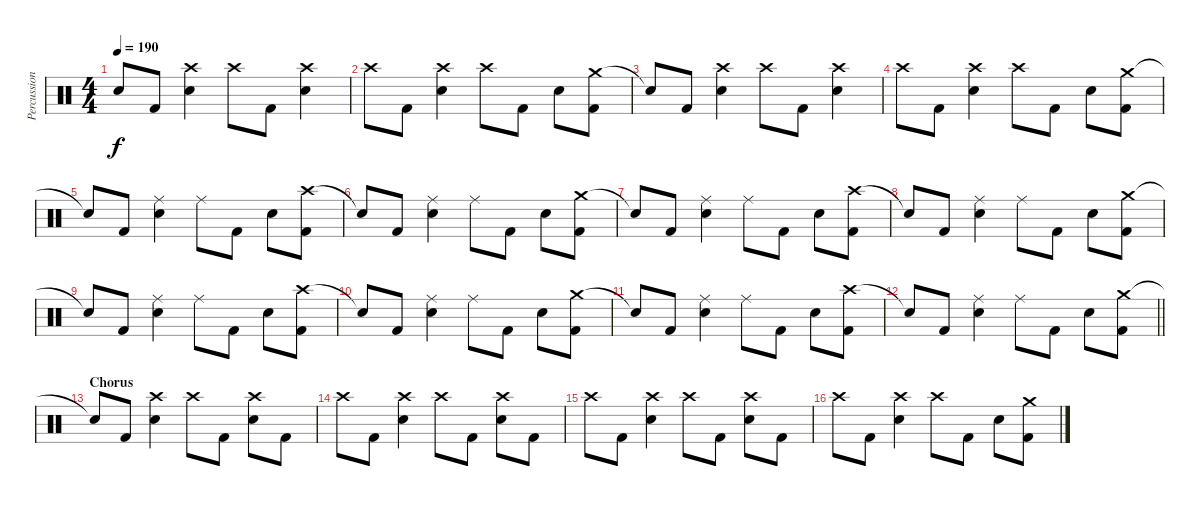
\track ("Percussion" "Percussion") {instrument percussion}
\staff {score}
\articulation defaults
\ts (4 4)
\tempo 190
\clef neutral
\ks c "Snare (hit)"{t}.8{dy f} "Kick (hit) 2".8
("Crash high (hit)" "Electric Snare (hit)").4 "Crash high (hit)".8 "Kick (hit) 2".8 ("Crash high (hit)" "Electric Snare (hit)").4 |
"Crash high (hit)".8 "Kick (hit) 2".8 ("Crash high (hit)" "Electric Snare (hit)").4 "Crash high (hit)".8 "Kick (hit) 2".8 "Electric Snare (hit)".8 ("Crash medium (hit)" "Kick (hit) 2").8 |
"Snare (hit)"{t}.8 "Kick (hit) 2".8 ("Crash high (hit)" "Electric Snare (hit)").4 "Crash high (hit)".8 "Kick (hit) 2".8 ("Crash high (hit)" "Electric Snare (hit)").4 |
"Crash high (hit)".8 "Kick (hit) 2".8 ("Crash high (hit)" "Electric Snare (hit)").4 "Crash high (hit)".8 "Kick (hit) 2".8 "Electric Snare (hit)".8 ("Crash medium (hit)" "Kick (hit) 2").8 |
"Snare (hit)"{t}.8 "Kick (hit) 2".8 ("Ride (middle)" "Electric Snare (hit)").4 "Ride (middle)".8 "Kick (hit) 2".8 "Electric Snare (hit)".8 ("Crash high (hit)" "Kick (hit) 2").8 |
"Snare (hit)"{t}.8 "Kick (hit) 2".8 ("Ride (middle)" "Electric Snare (hit)").4 "Ride (middle)".8 "Kick (hit) 2".8 "Electric Snare (hit)".8 ("Crash medium (hit)" "Kick (hit) 2").8 |
"Snare (hit)"{t}.8 "Kick (hit) 2".8 ("Ride (middle)" "Electric Snare (hit)").4 "Ride (middle)".8 "Kick (hit) 2".8 "Electric Snare (hit)".8 ("Crash high (hit)" "Kick (hit) 2").8 |
"Snare (hit)"{t}.8 "Kick (hit) 2".8 ("Ride (middle)" "Electric Snare (hit)").4 "Ride (middle)".8 "Kick (hit) 2".8 "Electric Snare (hit)".8 ("Crash medium (hit)" "Kick (hit) 2").8 |
"Snare (hit)"{t}.8 "Kick (hit) 2".8 ("Ride (middle)" "Electric Snare (hit)").4 "Ride (middle)".8 "Kick (hit) 2".8 "Electric Snare (hit)".8 ("Crash high (hit)" "Kick (hit) 2").8 |
"Snare (hit)"{t}.8 "Kick (hit) 2".8 ("Ride (middle)" "Electric Snare (hit)").4 "Ride (middle)".8 "Kick (hit) 2".8 "Electric Snare (hit)".8 ("Crash medium (hit)" "Kick (hit) 2").8 |
"Snare (hit)"{t}.8 "Kick (hit) 2".8 ("Ride (middle)" "Electric Snare (hit)").4 "Ride (middle)".8 "Kick (hit) 2".8 "Electric Snare (hit)".8 ("Crash high (hit)" "Kick (hit) 2").8 |
\barLineRight lightlight "Snare (hit)"{t}.8 "Kick (hit) 2".8
("Ride (middle)" "Electric Snare (hit)").4 "Ride (middle)".8 "Kick (hit) 2".8 "Electric Snare (hit)".8 ("Crash medium (hit)" "Kick (hit) 2").8 |
\section ("" "Chorus")
"Snare (hit)"{t}.8 "Kick (hit) 2".8 ("Crash high (hit)" "Electric Snare (hit)").4 "Crash high (hit)".8 "Kick (hit) 2".8 ("Crash high (hit)" "Electric Snare (hit)").8 "Kick (hit) 2".8 |
"Crash high (hit)".8 "Kick (hit) 2".8 ("Crash high (hit)" "Electric Snare (hit)").4 "Crash high (hit)".8 "Kick (hit) 2".8 ("Crash high (hit)" "Electric Snare (hit)").8 "Kick (hit) 2".8 |
"Crash high (hit)".8 "Kick (hit) 2".8 ("Crash high (hit)" "Electric Snare (hit)").4 "Crash high (hit)".8 "Kick (hit) 2".8 ("Crash high (hit)" "Electric Snare (hit)").8 "Kick (hit) 2".8 |
"Crash high (hit)".8 "Kick (hit) 2".8 ("Crash high (hit)" "Electric Snare (hit)").4 "Crash high (hit)".8 "Kick (hit) 2".8 "Electric Snare (hit)".8 ("Crash medium (hit)" "Kick (hit) 2").8
